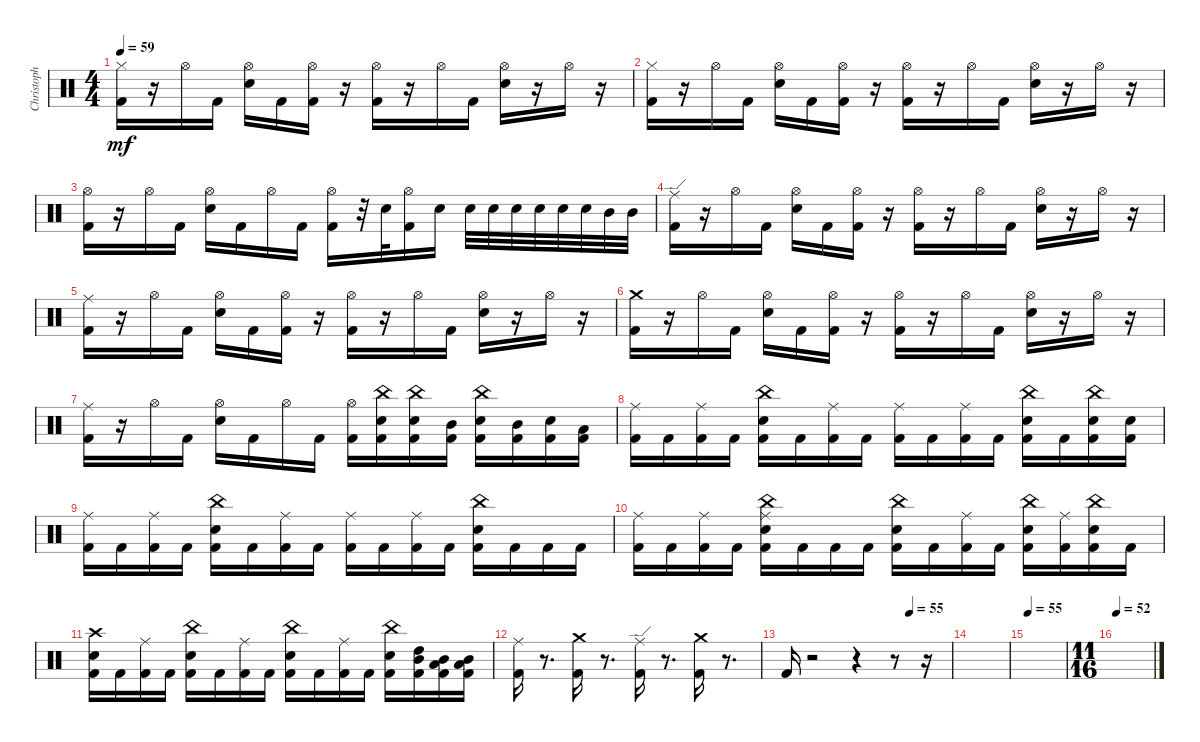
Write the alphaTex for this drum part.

\track ("Christoph Schneider " "Christoph ") {instrument percussion}
\staff {score}
\articulation defaults
\ts (4 4)
\tempo 59
\clef neutral
\ks c
("Kick (hit) 2" "Hi-Hat (closed)").16{dy mf} r.16 "Hi-Hat (open)".16 "Kick (hit) 2".16 ("Snare (hit) 2" "Hi-Hat (open)").16 "Kick (hit) 2".16 ("Kick (hit) 2" "Hi-Hat (open)").16 r.16 ("Kick (hit) 2" "Hi-Hat (open)").16 r.16 "Hi-Hat (open)".16 "Kick (hit) 2".16 ("Snare (hit) 2" "Hi-Hat (open)").16 r.16 "Hi-Hat (open)".16 r.16 |
("Kick (hit) 2" "Hi-Hat (closed)").16 r.16 "Hi-Hat (open)".16 "Kick (hit) 2".16 ("Snare (hit) 2" "Hi-Hat (open)").16 "Kick (hit) 2".16 ("Kick (hit) 2" "Hi-Hat (open)").16 r.16 ("Kick (hit) 2" "Hi-Hat (open)").16 r.16 "Hi-Hat (open)".16 "Kick (hit) 2".16 ("Snare (hit) 2" "Hi-Hat (open)").16 r.16 "Hi-Hat (open)".16 r.16 |
("Kick (hit) 2" "Hi-Hat (open)").16 r.16 "Hi-Hat (open)".16 "Kick (hit) 2".16 ("Snare (hit) 2" "Hi-Hat (open)").16 "Kick (hit) 2".16 "Hi-Hat (open)".16 "Kick (hit) 2".16 ("Kick (hit) 2" "Hi-Hat (open)").16 r.32 "Snare (hit) 2".32 ("Kick (hit) 2" "Hi-Hat (open)").16 "Snare (hit) 2".16 "Snare (hit) 2".32 "Snare (hit) 2".32 "Snare (hit) 2".32 "Snare (hit) 2".32 "Snare (hit) 2".32 "Snare (hit) 2".32 "Mid Tom (hit)".32 "Mid Tom (hit)".32 |
("Kick (hit) 2" "Ride (edge)").16 r.16 "Hi-Hat (open)".16 "Kick (hit) 2".16 ("Snare (hit) 2" "Hi-Hat (open)").16 "Kick (hit) 2".16 ("Kick (hit) 2" "Hi-Hat (open)").16 r.16 ("Kick (hit) 2" "Hi-Hat (open)").16 r.16 "Hi-Hat (open)".16 "Kick (hit) 2".16 ("Snare (hit) 2" "Hi-Hat (open)").16 r.16 "Hi-Hat (open)".16 r.16 |
("Kick (hit) 2" "Ride (middle)").16 r.16 "Hi-Hat (open)".16 "Kick (hit) 2".16 ("Snare (hit) 2" "Hi-Hat (open)").16 "Kick (hit) 2".16 ("Kick (hit) 2" "Hi-Hat (open)").16 r.16 ("Kick (hit) 2" "Hi-Hat (open)").16 r.16 "Hi-Hat (open)".16 "Kick (hit) 2".16 ("Snare (hit) 2" "Hi-Hat (open)").16 r.16 "Hi-Hat (open)".16 r.16 |
("Kick (hit) 2" "Crash medium (hit)").16 r.16 "Hi-Hat (open)".16 "Kick (hit) 2".16 ("Snare (hit) 2" "Hi-Hat (open)").16 "Kick (hit) 2".16 ("Kick (hit) 2" "Hi-Hat (open)").16 r.16 ("Kick (hit) 2" "Hi-Hat (open)").16 r.16 "Hi-Hat (open)".16 "Kick (hit) 2".16 ("Snare (hit) 2" "Hi-Hat (open)").16 r.16 "Hi-Hat (open)".16 r.16 |
("Kick (hit) 2" "Ride (middle)").16 r.16 "Hi-Hat (open)".16 "Kick (hit) 2".16 ("Snare (hit) 2" "Hi-Hat (open)").16 "Kick (hit) 2".16 "Hi-Hat (open)".16 "Kick (hit) 2".16 ("Kick (hit) 2" "Hi-Hat (open)").16 ("Kick (hit) 2" "Snare (hit) 2" "China (hit)").16 ("Kick (hit) 2" "Snare (hit) 2" "China (hit)").16 ("Kick (hit) 2" "Mid Tom (hit)").16 ("Kick (hit) 2" "Snare (hit) 2" "China (hit)").16 ("Kick (hit) 2" "Mid Tom (hit)").16 ("Kick (hit) 2" "Snare (hit) 2").16 ("Kick (hit) 2" "Low Tom (hit)").16 |
("Kick (hit) 2" "Ride (middle)").16 "Kick (hit) 2".16 ("Kick (hit) 2" "Ride (middle)").16 "Kick (hit) 2".16 ("Kick (hit) 2" "Snare (hit) 2" "China (hit)").16 "Kick (hit) 2".16 ("Kick (hit) 2" "Ride (middle)").16 "Kick (hit) 2".16 ("Kick (hit) 2" "Ride (middle)").16 "Kick (hit) 2".16 ("Kick (hit) 2" "Ride (middle)").16 "Kick (hit) 2".16 ("Kick (hit) 2" "Snare (hit) 2" "China (hit)").16 "Kick (hit) 2".16 ("Kick (hit) 2" "Snare (hit) 2" "China (hit)").16 ("Kick (hit) 2" "Snare (hit) 2").16 |
("Kick (hit) 2" "Ride (middle)").16 "Kick (hit) 2".16 ("Kick (hit) 2" "Ride (middle)").16 "Kick (hit) 2".16 ("Kick (hit) 2" "Snare (hit) 2" "China (hit)").16 "Kick (hit) 2".16 ("Kick (hit) 2" "Ride (middle)").16 "Kick (hit) 2".16 ("Kick (hit) 2" "Ride (middle)").16 "Kick (hit) 2".16 ("Kick (hit) 2" "Ride (middle)").16 "Kick (hit) 2".16 ("Kick (hit) 2" "Snare (hit) 2" "China (hit)").16 "Kick (hit) 2".16 "Kick (hit) 2".16 "Kick (hit) 2".16 |
("Kick (hit) 2" "Ride (middle)").16 "Kick (hit) 2".16 ("Kick (hit) 2" "Ride (middle)").16 "Kick (hit) 2".16 ("Kick (hit) 2" "Snare (hit) 2" "Ride (middle)" "China (hit)").16 "Kick (hit) 2".16 "Kick (hit) 2".16 "Kick (hit) 2".16 ("Kick (hit) 2" "Snare (hit) 2" "China (hit)").16 "Kick (hit) 2".16 ("Kick (hit) 2" "Ride (middle)").16 "Kick (hit) 2".16 ("Kick (hit) 2" "Snare (hit) 2" "China (hit)").16 ("Kick (hit) 2" "Ride (middle)").16 ("Kick (hit) 2" "Snare (hit) 2" "China (hit)").16 "Kick (hit) 2".16 |
("Kick (hit) 2" "Snare (hit) 2" "Crash high (hit)").16 "Kick (hit) 2".16 ("Kick (hit) 2" "Ride (middle)").16 "Kick (hit) 2".16 ("Kick (hit) 2" "Snare (hit) 2" "China (hit)").16 "Kick (hit) 2".16 ("Kick (hit) 2" "Ride (middle)").16 "Kick (hit) 2".16 ("Kick (hit) 2" "Snare (hit) 2" "China (hit)").16 "Kick (hit) 2".16 ("Kick (hit) 2" "Ride (middle)").16 "Kick (hit) 2".16 ("Kick (hit) 2" "Snare (hit) 2" "China (hit)").16 ("Kick (hit) 2" "High Tom (hit)" "Mid Tom (hit)").16 ("Kick (hit) 2" "Mid Tom (hit)" "Low Tom (hit)").16 ("Kick (hit) 2" "Low Tom (hit)" "Mid Tom (hit)").16 |
("Kick (hit) 2" "Ride (middle)").16 r.8{d} ("Kick (hit) 2" "Crash medium (hit)").16 r.8{d} ("Kick (hit) 2" "Ride (edge)").16 r.8{d} ("Kick (hit) 2" "Crash medium (hit)").16 r.8{d} |
\tempo (55 0.75)
"Kick (hit) 2".16 r.2 r.4 r.8 r.16 |
|
\tempo 55
|
\ts (11 16)
\tempo 52
